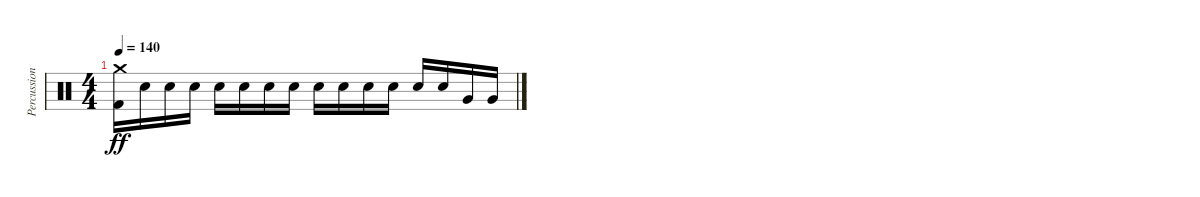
\track ("Percussion" "Percussion") {instrument percussion}
\staff {score}
\articulation defaults
\ts (4 4)
\tempo 140
\clef neutral
\ks c
("Crash medium (hit)" "Kick (hit) 2").16{dy ff} "Electric Snare (hit)".16 "Electric Snare (hit)".16 "Electric Snare (hit)".16 "Electric Snare (hit)".16 "Electric Snare (hit)".16 "Electric Snare (hit)".16 "Electric Snare (hit)".16 "Electric Snare (hit)".16 "Electric Snare (hit)".16 "Electric Snare (hit)".16 "Electric Snare (hit)".16 "Electric Snare (hit)".16 "Electric Snare (hit)".16 "Very Low Tom (hit)".16 "Very Low Tom (hit)".16
